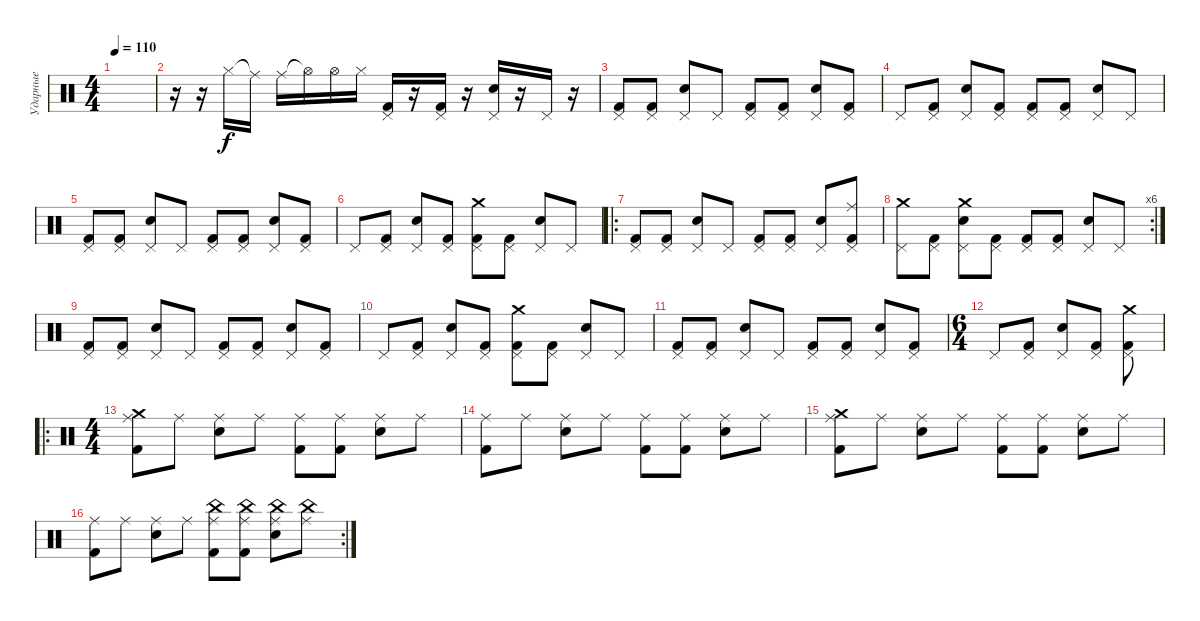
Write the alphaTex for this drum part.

\track ("Ударные" "Ударные") {instrument percussion}
\staff {score}
\articulation defaults
\ts (4 4)
\tempo 110
\clef neutral
\ks c
|
r.16 r.16 "Hi-Hat (closed)".16 "Ride (middle)"{t}.16 "Ride (middle)".16 "Hi-Hat (open)"{t}.16 "Hi-Hat (open)".16 "Hi-Hat (closed)".16 ("Pedal Hi-Hat (hit)" "Kick (hit) 2").16 r.16 ("Pedal Hi-Hat (hit)" "Kick (hit) 2").16 r.16 ("Pedal Hi-Hat (hit)" "Electric Snare (hit)").16 r.16 "Pedal Hi-Hat (hit)".16 r.16 |
("Pedal Hi-Hat (hit)" "Kick (hit) 2").8 ("Pedal Hi-Hat (hit)" "Kick (hit) 2").8 ("Pedal Hi-Hat (hit)" "Electric Snare (hit)").8 "Pedal Hi-Hat (hit)".8 ("Pedal Hi-Hat (hit)" "Kick (hit) 2").8 ("Pedal Hi-Hat (hit)" "Kick (hit) 2").8 ("Pedal Hi-Hat (hit)" "Electric Snare (hit)").8 ("Pedal Hi-Hat (hit)" "Kick (hit) 2").8 |
"Pedal Hi-Hat (hit)".8 ("Pedal Hi-Hat (hit)" "Kick (hit) 2").8 ("Pedal Hi-Hat (hit)" "Electric Snare (hit)").8 ("Pedal Hi-Hat (hit)" "Kick (hit) 2").8 ("Pedal Hi-Hat (hit)" "Kick (hit) 2").8 ("Pedal Hi-Hat (hit)" "Kick (hit) 2").8 ("Pedal Hi-Hat (hit)" "Electric Snare (hit)").8 "Pedal Hi-Hat (hit)".8 |
("Pedal Hi-Hat (hit)" "Kick (hit) 2").8 ("Pedal Hi-Hat (hit)" "Kick (hit) 2").8 ("Pedal Hi-Hat (hit)" "Electric Snare (hit)").8 "Pedal Hi-Hat (hit)".8 ("Pedal Hi-Hat (hit)" "Kick (hit) 2").8 ("Pedal Hi-Hat (hit)" "Kick (hit) 2").8 ("Pedal Hi-Hat (hit)" "Electric Snare (hit)").8 ("Pedal Hi-Hat (hit)" "Kick (hit) 2").8 |
"Pedal Hi-Hat (hit)".8 ("Pedal Hi-Hat (hit)" "Kick (hit) 2").8 ("Pedal Hi-Hat (hit)" "Electric Snare (hit)").8 ("Pedal Hi-Hat (hit)" "Kick (hit) 2").8 ("Pedal Hi-Hat (hit)" "Crash medium (hit)" "Kick (hit) 2").8 ("Pedal Hi-Hat (hit)" "Kick (hit) 2").8 ("Pedal Hi-Hat (hit)" "Electric Snare (hit)").8 "Pedal Hi-Hat (hit)".8 |
\ro
("Pedal Hi-Hat (hit)" "Kick (hit) 2").8 ("Pedal Hi-Hat (hit)" "Kick (hit) 2").8 ("Pedal Hi-Hat (hit)" "Electric Snare (hit)").8 "Pedal Hi-Hat (hit)".8 ("Pedal Hi-Hat (hit)" "Kick (hit) 2").8 ("Pedal Hi-Hat (hit)" "Kick (hit) 2").8 ("Pedal Hi-Hat (hit)" "Electric Snare (hit)").8 ("Pedal Hi-Hat (hit)" "Ride (middle)" "Kick (hit) 2").8 |
\rc 6
("Pedal Hi-Hat (hit)" "Crash medium (hit)").8 ("Pedal Hi-Hat (hit)" "Kick (hit) 2").8 ("Pedal Hi-Hat (hit)" "Crash medium (hit)" "Electric Snare (hit)").8 ("Pedal Hi-Hat (hit)" "Kick (hit) 2").8 ("Pedal Hi-Hat (hit)" "Kick (hit) 2").8 ("Pedal Hi-Hat (hit)" "Kick (hit) 2").8 ("Pedal Hi-Hat (hit)" "Electric Snare (hit)").8 "Pedal Hi-Hat (hit)".8 |
("Pedal Hi-Hat (hit)" "Kick (hit) 2").8 ("Pedal Hi-Hat (hit)" "Kick (hit) 2").8 ("Pedal Hi-Hat (hit)" "Electric Snare (hit)").8 "Pedal Hi-Hat (hit)".8 ("Pedal Hi-Hat (hit)" "Kick (hit) 2").8 ("Pedal Hi-Hat (hit)" "Kick (hit) 2").8 ("Pedal Hi-Hat (hit)" "Electric Snare (hit)").8 ("Pedal Hi-Hat (hit)" "Kick (hit) 2").8 |
"Pedal Hi-Hat (hit)".8 ("Pedal Hi-Hat (hit)" "Kick (hit) 2").8 ("Pedal Hi-Hat (hit)" "Electric Snare (hit)").8 ("Pedal Hi-Hat (hit)" "Kick (hit) 2").8 ("Pedal Hi-Hat (hit)" "Crash medium (hit)" "Kick (hit) 2").8 ("Pedal Hi-Hat (hit)" "Kick (hit) 2").8 ("Pedal Hi-Hat (hit)" "Electric Snare (hit)").8 "Pedal Hi-Hat (hit)".8 |
("Pedal Hi-Hat (hit)" "Kick (hit) 2").8 ("Pedal Hi-Hat (hit)" "Kick (hit) 2").8 ("Pedal Hi-Hat (hit)" "Electric Snare (hit)").8 "Pedal Hi-Hat (hit)".8 ("Pedal Hi-Hat (hit)" "Kick (hit) 2").8 ("Pedal Hi-Hat (hit)" "Kick (hit) 2").8 ("Pedal Hi-Hat (hit)" "Electric Snare (hit)").8 ("Pedal Hi-Hat (hit)" "Kick (hit) 2").8 |
\ts (6 4)
"Pedal Hi-Hat (hit)".8 ("Pedal Hi-Hat (hit)" "Kick (hit) 2").8 ("Pedal Hi-Hat (hit)" "Electric Snare (hit)").8 ("Pedal Hi-Hat (hit)" "Kick (hit) 2").8 ("Pedal Hi-Hat (hit)" "Crash medium (hit)" "Kick (hit) 2").8 |
\ro
\ts (4 4)
("Ride (middle)" "Crash medium (hit)" "Kick (hit) 2").8 "Ride (middle)".8 ("Ride (middle)" "Electric Snare (hit)").8 "Ride (middle)".8 ("Ride (middle)" "Kick (hit) 2").8 ("Ride (middle)" "Kick (hit) 2").8 ("Ride (middle)" "Electric Snare (hit)").8 "Ride (middle)".8 |
("Ride (middle)" "Kick (hit) 2").8 "Ride (middle)".8 ("Ride (middle)" "Electric Snare (hit)").8 "Ride (middle)".8 ("Ride (middle)" "Kick (hit) 2").8 ("Ride (middle)" "Kick (hit) 2").8 ("Ride (middle)" "Electric Snare (hit)").8 "Ride (middle)".8 |
("Ride (middle)" "Crash medium (hit)" "Kick (hit) 2").8 "Ride (middle)".8 ("Ride (middle)" "Electric Snare (hit)").8 "Ride (middle)".8 ("Ride (middle)" "Kick (hit) 2").8 ("Ride (middle)" "Kick (hit) 2").8 ("Ride (middle)" "Electric Snare (hit)").8 "Ride (middle)".8 |
\rc 2
("Ride (middle)" "Kick (hit) 2").8 "Ride (middle)".8 ("Ride (middle)" "Electric Snare (hit)").8 "Ride (middle)".8 ("Ride (middle)" "China (hit)" "Kick (hit) 2").8 ("Ride (middle)" "China (hit)" "Kick (hit) 2").8 ("Ride (middle)" "China (hit)" "Electric Snare (hit)").8 ("Ride (middle)" "China (hit)").8
